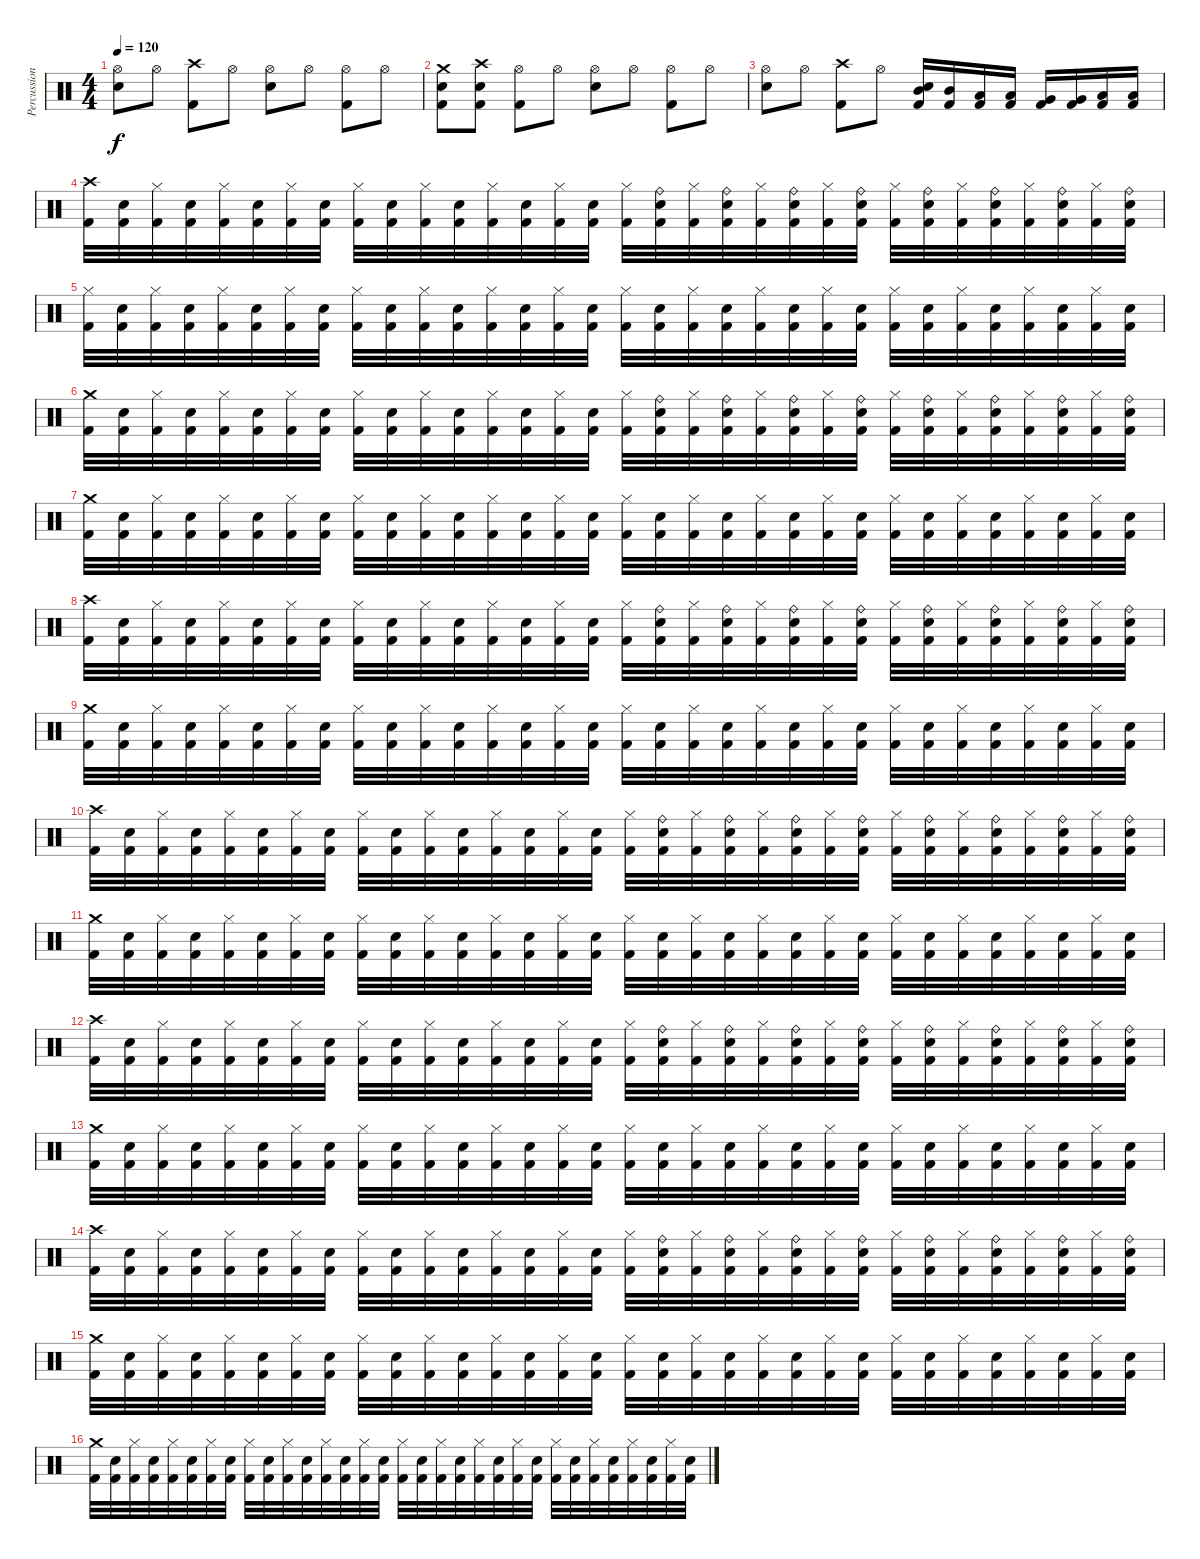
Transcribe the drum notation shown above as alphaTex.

\track ("Percussion" "Percussion") {instrument percussion}
\staff {score}
\articulation defaults
\ts (4 4)
\tempo 120
\clef neutral
\ks c
("Hi-Hat (open)" "Snare (hit) 2").8{dy f} "Hi-Hat (open)".8 ("Crash high (hit)" "Kick (hit) 2").8 "Hi-Hat (open)".8 ("Hi-Hat (open)" "Snare (hit) 2").8 "Hi-Hat (open)".8 ("Hi-Hat (open)" "Kick (hit) 2").8 "Hi-Hat (open)".8 |
("Crash medium (hit)" "Snare (hit) 2" "Kick (hit) 2").8 ("Crash high (hit)" "Snare (hit) 2" "Kick (hit) 2").8 ("Hi-Hat (open)" "Kick (hit) 2").8 "Hi-Hat (open)".8 ("Hi-Hat (open)" "Snare (hit) 2").8 "Hi-Hat (open)".8 ("Hi-Hat (open)" "Kick (hit) 2").8 "Hi-Hat (open)".8 |
("Hi-Hat (open)" "Snare (hit) 2").8 "Hi-Hat (open)".8 ("Crash high (hit)" "Kick (hit) 2").8 "Hi-Hat (open)".8 ("Mid Tom (hit)" "Snare (hit) 2" "Kick (hit) 2").16 ("Mid Tom (hit)" "Kick (hit) 2").16 ("Low Tom (hit)" "Kick (hit) 2").16 ("Low Tom (hit)" "Kick (hit) 2").16 ("Very Low Tom (hit)" "Kick (hit) 2").16 ("Very Low Tom (hit)" "Kick (hit) 2").16 ("Low Floor Tom (hit)" "Kick (hit) 2").16 ("Low Floor Tom (hit)" "Kick (hit) 2").16 |
("Crash high (hit)" "Kick (hit) 2").32 ("Snare (hit) 2" "Kick (hit) 2").32 ("Hi-Hat (closed)" "Kick (hit) 2").32 ("Snare (hit) 2" "Kick (hit) 2").32 ("Hi-Hat (closed)" "Kick (hit) 2").32 ("Snare (hit) 2" "Kick (hit) 2").32 ("Hi-Hat (closed)" "Kick (hit) 2").32 ("Snare (hit) 2" "Kick (hit) 2").32 ("Hi-Hat (closed)" "Kick (hit) 2").32 ("Snare (hit) 2" "Kick (hit) 2").32 ("Hi-Hat (closed)" "Kick (hit) 2").32 ("Snare (hit) 2" "Kick (hit) 2").32 ("Hi-Hat (closed)" "Kick (hit) 2").32 ("Snare (hit) 2" "Kick (hit) 2").32 ("Hi-Hat (closed)" "Kick (hit) 2").32 ("Snare (hit) 2" "Kick (hit) 2").32 ("Hi-Hat (closed)" "Kick (hit) 2").32 ("Snare (hit) 2" "Ride (bell)" "Kick (hit) 2").32 ("Hi-Hat (closed)" "Kick (hit) 2").32 ("Snare (hit) 2" "Ride (bell)" "Kick (hit) 2").32 ("Hi-Hat (closed)" "Kick (hit) 2").32 ("Snare (hit) 2" "Ride (bell)" "Kick (hit) 2").32 ("Hi-Hat (closed)" "Kick (hit) 2").32 ("Snare (hit) 2" "Ride (bell)" "Kick (hit) 2").32 ("Hi-Hat (closed)" "Kick (hit) 2").32 ("Snare (hit) 2" "Ride (bell)" "Kick (hit) 2").32 ("Hi-Hat (closed)" "Kick (hit) 2").32 ("Snare (hit) 2" "Ride (bell)" "Kick (hit) 2").32 ("Hi-Hat (closed)" "Kick (hit) 2").32 ("Snare (hit) 2" "Ride (bell)" "Kick (hit) 2").32 ("Hi-Hat (closed)" "Kick (hit) 2").32 ("Snare (hit) 2" "Ride (bell)" "Kick (hit) 2").32 |
("Hi-Hat (closed)" "Kick (hit) 2").32 ("Snare (hit) 2" "Kick (hit) 2").32 ("Hi-Hat (closed)" "Kick (hit) 2").32 ("Snare (hit) 2" "Kick (hit) 2").32 ("Hi-Hat (closed)" "Kick (hit) 2").32 ("Snare (hit) 2" "Kick (hit) 2").32 ("Hi-Hat (closed)" "Kick (hit) 2").32 ("Snare (hit) 2" "Kick (hit) 2").32 ("Hi-Hat (closed)" "Kick (hit) 2").32 ("Snare (hit) 2" "Kick (hit) 2").32 ("Hi-Hat (closed)" "Kick (hit) 2").32 ("Snare (hit) 2" "Kick (hit) 2").32 ("Hi-Hat (closed)" "Kick (hit) 2").32 ("Snare (hit) 2" "Kick (hit) 2").32 ("Hi-Hat (closed)" "Kick (hit) 2").32 ("Snare (hit) 2" "Kick (hit) 2").32 ("Hi-Hat (closed)" "Kick (hit) 2").32 ("Snare (hit) 2" "Kick (hit) 2").32 ("Hi-Hat (closed)" "Kick (hit) 2").32 ("Snare (hit) 2" "Kick (hit) 2").32 ("Hi-Hat (closed)" "Kick (hit) 2").32 ("Snare (hit) 2" "Kick (hit) 2").32 ("Hi-Hat (closed)" "Kick (hit) 2").32 ("Snare (hit) 2" "Kick (hit) 2").32 ("Hi-Hat (closed)" "Kick (hit) 2").32 ("Snare (hit) 2" "Kick (hit) 2").32 ("Hi-Hat (closed)" "Kick (hit) 2").32 ("Snare (hit) 2" "Kick (hit) 2").32 ("Hi-Hat (closed)" "Kick (hit) 2").32 ("Snare (hit) 2" "Kick (hit) 2").32 ("Hi-Hat (closed)" "Kick (hit) 2").32 ("Snare (hit) 2" "Kick (hit) 2").32 |
("Crash medium (hit)" "Kick (hit) 2").32 ("Snare (hit) 2" "Kick (hit) 2").32 ("Hi-Hat (closed)" "Kick (hit) 2").32 ("Snare (hit) 2" "Kick (hit) 2").32 ("Hi-Hat (closed)" "Kick (hit) 2").32 ("Snare (hit) 2" "Kick (hit) 2").32 ("Hi-Hat (closed)" "Kick (hit) 2").32 ("Snare (hit) 2" "Kick (hit) 2").32 ("Hi-Hat (closed)" "Kick (hit) 2").32 ("Snare (hit) 2" "Kick (hit) 2").32 ("Hi-Hat (closed)" "Kick (hit) 2").32 ("Snare (hit) 2" "Kick (hit) 2").32 ("Hi-Hat (closed)" "Kick (hit) 2").32 ("Snare (hit) 2" "Kick (hit) 2").32 ("Hi-Hat (closed)" "Kick (hit) 2").32 ("Snare (hit) 2" "Kick (hit) 2").32 ("Hi-Hat (closed)" "Kick (hit) 2").32 ("Snare (hit) 2" "Ride (bell)" "Kick (hit) 2").32 ("Hi-Hat (closed)" "Kick (hit) 2").32 ("Snare (hit) 2" "Ride (bell)" "Kick (hit) 2").32 ("Hi-Hat (closed)" "Kick (hit) 2").32 ("Snare (hit) 2" "Ride (bell)" "Kick (hit) 2").32 ("Hi-Hat (closed)" "Kick (hit) 2").32 ("Snare (hit) 2" "Ride (bell)" "Kick (hit) 2").32 ("Hi-Hat (closed)" "Kick (hit) 2").32 ("Snare (hit) 2" "Ride (bell)" "Kick (hit) 2").32 ("Hi-Hat (closed)" "Kick (hit) 2").32 ("Snare (hit) 2" "Ride (bell)" "Kick (hit) 2").32 ("Hi-Hat (closed)" "Kick (hit) 2").32 ("Snare (hit) 2" "Ride (bell)" "Kick (hit) 2").32 ("Hi-Hat (closed)" "Kick (hit) 2").32 ("Snare (hit) 2" "Ride (bell)" "Kick (hit) 2").32 |
("Crash medium (hit)" "Kick (hit) 2").32 ("Snare (hit) 2" "Kick (hit) 2").32 ("Hi-Hat (closed)" "Kick (hit) 2").32 ("Snare (hit) 2" "Kick (hit) 2").32 ("Hi-Hat (closed)" "Kick (hit) 2").32 ("Snare (hit) 2" "Kick (hit) 2").32 ("Hi-Hat (closed)" "Kick (hit) 2").32 ("Snare (hit) 2" "Kick (hit) 2").32 ("Hi-Hat (closed)" "Kick (hit) 2").32 ("Snare (hit) 2" "Kick (hit) 2").32 ("Hi-Hat (closed)" "Kick (hit) 2").32 ("Snare (hit) 2" "Kick (hit) 2").32 ("Hi-Hat (closed)" "Kick (hit) 2").32 ("Snare (hit) 2" "Kick (hit) 2").32 ("Hi-Hat (closed)" "Kick (hit) 2").32 ("Snare (hit) 2" "Kick (hit) 2").32 ("Hi-Hat (closed)" "Kick (hit) 2").32 ("Snare (hit) 2" "Kick (hit) 2").32 ("Hi-Hat (closed)" "Kick (hit) 2").32 ("Snare (hit) 2" "Kick (hit) 2").32 ("Hi-Hat (closed)" "Kick (hit) 2").32 ("Snare (hit) 2" "Kick (hit) 2").32 ("Hi-Hat (closed)" "Kick (hit) 2").32 ("Snare (hit) 2" "Kick (hit) 2").32 ("Hi-Hat (closed)" "Kick (hit) 2").32 ("Snare (hit) 2" "Kick (hit) 2").32 ("Hi-Hat (closed)" "Kick (hit) 2").32 ("Snare (hit) 2" "Kick (hit) 2").32 ("Hi-Hat (closed)" "Kick (hit) 2").32 ("Snare (hit) 2" "Kick (hit) 2").32 ("Hi-Hat (closed)" "Kick (hit) 2").32 ("Snare (hit) 2" "Kick (hit) 2").32 |
("Crash high (hit)" "Kick (hit) 2").32 ("Snare (hit) 2" "Kick (hit) 2").32 ("Hi-Hat (closed)" "Kick (hit) 2").32 ("Snare (hit) 2" "Kick (hit) 2").32 ("Hi-Hat (closed)" "Kick (hit) 2").32 ("Snare (hit) 2" "Kick (hit) 2").32 ("Hi-Hat (closed)" "Kick (hit) 2").32 ("Snare (hit) 2" "Kick (hit) 2").32 ("Hi-Hat (closed)" "Kick (hit) 2").32 ("Snare (hit) 2" "Kick (hit) 2").32 ("Hi-Hat (closed)" "Kick (hit) 2").32 ("Snare (hit) 2" "Kick (hit) 2").32 ("Hi-Hat (closed)" "Kick (hit) 2").32 ("Snare (hit) 2" "Kick (hit) 2").32 ("Hi-Hat (closed)" "Kick (hit) 2").32 ("Snare (hit) 2" "Kick (hit) 2").32 ("Hi-Hat (closed)" "Kick (hit) 2").32 ("Snare (hit) 2" "Ride (bell)" "Kick (hit) 2").32 ("Hi-Hat (closed)" "Kick (hit) 2").32 ("Snare (hit) 2" "Ride (bell)" "Kick (hit) 2").32 ("Hi-Hat (closed)" "Kick (hit) 2").32 ("Snare (hit) 2" "Ride (bell)" "Kick (hit) 2").32 ("Hi-Hat (closed)" "Kick (hit) 2").32 ("Snare (hit) 2" "Ride (bell)" "Kick (hit) 2").32 ("Hi-Hat (closed)" "Kick (hit) 2").32 ("Snare (hit) 2" "Ride (bell)" "Kick (hit) 2").32 ("Hi-Hat (closed)" "Kick (hit) 2").32 ("Snare (hit) 2" "Ride (bell)" "Kick (hit) 2").32 ("Hi-Hat (closed)" "Kick (hit) 2").32 ("Snare (hit) 2" "Ride (bell)" "Kick (hit) 2").32 ("Hi-Hat (closed)" "Kick (hit) 2").32 ("Snare (hit) 2" "Ride (bell)" "Kick (hit) 2").32 |
("Crash medium (hit)" "Kick (hit) 2").32 ("Snare (hit) 2" "Kick (hit) 2").32 ("Hi-Hat (closed)" "Kick (hit) 2").32 ("Snare (hit) 2" "Kick (hit) 2").32 ("Hi-Hat (closed)" "Kick (hit) 2").32 ("Snare (hit) 2" "Kick (hit) 2").32 ("Hi-Hat (closed)" "Kick (hit) 2").32 ("Snare (hit) 2" "Kick (hit) 2").32 ("Hi-Hat (closed)" "Kick (hit) 2").32 ("Snare (hit) 2" "Kick (hit) 2").32 ("Hi-Hat (closed)" "Kick (hit) 2").32 ("Snare (hit) 2" "Kick (hit) 2").32 ("Hi-Hat (closed)" "Kick (hit) 2").32 ("Snare (hit) 2" "Kick (hit) 2").32 ("Hi-Hat (closed)" "Kick (hit) 2").32 ("Snare (hit) 2" "Kick (hit) 2").32 ("Hi-Hat (closed)" "Kick (hit) 2").32 ("Snare (hit) 2" "Kick (hit) 2").32 ("Hi-Hat (closed)" "Kick (hit) 2").32 ("Snare (hit) 2" "Kick (hit) 2").32 ("Hi-Hat (closed)" "Kick (hit) 2").32 ("Snare (hit) 2" "Kick (hit) 2").32 ("Hi-Hat (closed)" "Kick (hit) 2").32 ("Snare (hit) 2" "Kick (hit) 2").32 ("Hi-Hat (closed)" "Kick (hit) 2").32 ("Snare (hit) 2" "Kick (hit) 2").32 ("Hi-Hat (closed)" "Kick (hit) 2").32 ("Snare (hit) 2" "Kick (hit) 2").32 ("Hi-Hat (closed)" "Kick (hit) 2").32 ("Snare (hit) 2" "Kick (hit) 2").32 ("Hi-Hat (closed)" "Kick (hit) 2").32 ("Snare (hit) 2" "Kick (hit) 2").32 |
("Crash high (hit)" "Kick (hit) 2").32 ("Snare (hit) 2" "Kick (hit) 2").32 ("Hi-Hat (closed)" "Kick (hit) 2").32 ("Snare (hit) 2" "Kick (hit) 2").32 ("Hi-Hat (closed)" "Kick (hit) 2").32 ("Snare (hit) 2" "Kick (hit) 2").32 ("Hi-Hat (closed)" "Kick (hit) 2").32 ("Snare (hit) 2" "Kick (hit) 2").32 ("Hi-Hat (closed)" "Kick (hit) 2").32 ("Snare (hit) 2" "Kick (hit) 2").32 ("Hi-Hat (closed)" "Kick (hit) 2").32 ("Snare (hit) 2" "Kick (hit) 2").32 ("Hi-Hat (closed)" "Kick (hit) 2").32 ("Snare (hit) 2" "Kick (hit) 2").32 ("Hi-Hat (closed)" "Kick (hit) 2").32 ("Snare (hit) 2" "Kick (hit) 2").32 ("Hi-Hat (closed)" "Kick (hit) 2").32 ("Snare (hit) 2" "Ride (bell)" "Kick (hit) 2").32 ("Hi-Hat (closed)" "Kick (hit) 2").32 ("Snare (hit) 2" "Ride (bell)" "Kick (hit) 2").32 ("Hi-Hat (closed)" "Kick (hit) 2").32 ("Snare (hit) 2" "Ride (bell)" "Kick (hit) 2").32 ("Hi-Hat (closed)" "Kick (hit) 2").32 ("Snare (hit) 2" "Ride (bell)" "Kick (hit) 2").32 ("Hi-Hat (closed)" "Kick (hit) 2").32 ("Snare (hit) 2" "Ride (bell)" "Kick (hit) 2").32 ("Hi-Hat (closed)" "Kick (hit) 2").32 ("Snare (hit) 2" "Ride (bell)" "Kick (hit) 2").32 ("Hi-Hat (closed)" "Kick (hit) 2").32 ("Snare (hit) 2" "Ride (bell)" "Kick (hit) 2").32 ("Hi-Hat (closed)" "Kick (hit) 2").32 ("Snare (hit) 2" "Ride (bell)" "Kick (hit) 2").32 |
("Crash medium (hit)" "Kick (hit) 2").32 ("Snare (hit) 2" "Kick (hit) 2").32 ("Hi-Hat (closed)" "Kick (hit) 2").32 ("Snare (hit) 2" "Kick (hit) 2").32 ("Hi-Hat (closed)" "Kick (hit) 2").32 ("Snare (hit) 2" "Kick (hit) 2").32 ("Hi-Hat (closed)" "Kick (hit) 2").32 ("Snare (hit) 2" "Kick (hit) 2").32 ("Hi-Hat (closed)" "Kick (hit) 2").32 ("Snare (hit) 2" "Kick (hit) 2").32 ("Hi-Hat (closed)" "Kick (hit) 2").32 ("Snare (hit) 2" "Kick (hit) 2").32 ("Hi-Hat (closed)" "Kick (hit) 2").32 ("Snare (hit) 2" "Kick (hit) 2").32 ("Hi-Hat (closed)" "Kick (hit) 2").32 ("Snare (hit) 2" "Kick (hit) 2").32 ("Hi-Hat (closed)" "Kick (hit) 2").32 ("Snare (hit) 2" "Kick (hit) 2").32 ("Hi-Hat (closed)" "Kick (hit) 2").32 ("Snare (hit) 2" "Kick (hit) 2").32 ("Hi-Hat (closed)" "Kick (hit) 2").32 ("Snare (hit) 2" "Kick (hit) 2").32 ("Hi-Hat (closed)" "Kick (hit) 2").32 ("Snare (hit) 2" "Kick (hit) 2").32 ("Hi-Hat (closed)" "Kick (hit) 2").32 ("Snare (hit) 2" "Kick (hit) 2").32 ("Hi-Hat (closed)" "Kick (hit) 2").32 ("Snare (hit) 2" "Kick (hit) 2").32 ("Hi-Hat (closed)" "Kick (hit) 2").32 ("Snare (hit) 2" "Kick (hit) 2").32 ("Hi-Hat (closed)" "Kick (hit) 2").32 ("Snare (hit) 2" "Kick (hit) 2").32 |
("Crash high (hit)" "Kick (hit) 2").32 ("Snare (hit) 2" "Kick (hit) 2").32 ("Hi-Hat (closed)" "Kick (hit) 2").32 ("Snare (hit) 2" "Kick (hit) 2").32 ("Hi-Hat (closed)" "Kick (hit) 2").32 ("Snare (hit) 2" "Kick (hit) 2").32 ("Hi-Hat (closed)" "Kick (hit) 2").32 ("Snare (hit) 2" "Kick (hit) 2").32 ("Hi-Hat (closed)" "Kick (hit) 2").32 ("Snare (hit) 2" "Kick (hit) 2").32 ("Hi-Hat (closed)" "Kick (hit) 2").32 ("Snare (hit) 2" "Kick (hit) 2").32 ("Hi-Hat (closed)" "Kick (hit) 2").32 ("Snare (hit) 2" "Kick (hit) 2").32 ("Hi-Hat (closed)" "Kick (hit) 2").32 ("Snare (hit) 2" "Kick (hit) 2").32 ("Hi-Hat (closed)" "Kick (hit) 2").32 ("Snare (hit) 2" "Ride (bell)" "Kick (hit) 2").32 ("Hi-Hat (closed)" "Kick (hit) 2").32 ("Snare (hit) 2" "Ride (bell)" "Kick (hit) 2").32 ("Hi-Hat (closed)" "Kick (hit) 2").32 ("Snare (hit) 2" "Ride (bell)" "Kick (hit) 2").32 ("Hi-Hat (closed)" "Kick (hit) 2").32 ("Snare (hit) 2" "Ride (bell)" "Kick (hit) 2").32 ("Hi-Hat (closed)" "Kick (hit) 2").32 ("Snare (hit) 2" "Ride (bell)" "Kick (hit) 2").32 ("Hi-Hat (closed)" "Kick (hit) 2").32 ("Snare (hit) 2" "Ride (bell)" "Kick (hit) 2").32 ("Hi-Hat (closed)" "Kick (hit) 2").32 ("Snare (hit) 2" "Ride (bell)" "Kick (hit) 2").32 ("Hi-Hat (closed)" "Kick (hit) 2").32 ("Snare (hit) 2" "Ride (bell)" "Kick (hit) 2").32 |
("Crash medium (hit)" "Kick (hit) 2").32 ("Snare (hit) 2" "Kick (hit) 2").32 ("Hi-Hat (closed)" "Kick (hit) 2").32 ("Snare (hit) 2" "Kick (hit) 2").32 ("Hi-Hat (closed)" "Kick (hit) 2").32 ("Snare (hit) 2" "Kick (hit) 2").32 ("Hi-Hat (closed)" "Kick (hit) 2").32 ("Snare (hit) 2" "Kick (hit) 2").32 ("Hi-Hat (closed)" "Kick (hit) 2").32 ("Snare (hit) 2" "Kick (hit) 2").32 ("Hi-Hat (closed)" "Kick (hit) 2").32 ("Snare (hit) 2" "Kick (hit) 2").32 ("Hi-Hat (closed)" "Kick (hit) 2").32 ("Snare (hit) 2" "Kick (hit) 2").32 ("Hi-Hat (closed)" "Kick (hit) 2").32 ("Snare (hit) 2" "Kick (hit) 2").32 ("Hi-Hat (closed)" "Kick (hit) 2").32 ("Snare (hit) 2" "Kick (hit) 2").32 ("Hi-Hat (closed)" "Kick (hit) 2").32 ("Snare (hit) 2" "Kick (hit) 2").32 ("Hi-Hat (closed)" "Kick (hit) 2").32 ("Snare (hit) 2" "Kick (hit) 2").32 ("Hi-Hat (closed)" "Kick (hit) 2").32 ("Snare (hit) 2" "Kick (hit) 2").32 ("Hi-Hat (closed)" "Kick (hit) 2").32 ("Snare (hit) 2" "Kick (hit) 2").32 ("Hi-Hat (closed)" "Kick (hit) 2").32 ("Snare (hit) 2" "Kick (hit) 2").32 ("Hi-Hat (closed)" "Kick (hit) 2").32 ("Snare (hit) 2" "Kick (hit) 2").32 ("Hi-Hat (closed)" "Kick (hit) 2").32 ("Snare (hit) 2" "Kick (hit) 2").32 |
("Crash high (hit)" "Kick (hit) 2").32 ("Snare (hit) 2" "Kick (hit) 2").32 ("Hi-Hat (closed)" "Kick (hit) 2").32 ("Snare (hit) 2" "Kick (hit) 2").32 ("Hi-Hat (closed)" "Kick (hit) 2").32 ("Snare (hit) 2" "Kick (hit) 2").32 ("Hi-Hat (closed)" "Kick (hit) 2").32 ("Snare (hit) 2" "Kick (hit) 2").32 ("Hi-Hat (closed)" "Kick (hit) 2").32 ("Snare (hit) 2" "Kick (hit) 2").32 ("Hi-Hat (closed)" "Kick (hit) 2").32 ("Snare (hit) 2" "Kick (hit) 2").32 ("Hi-Hat (closed)" "Kick (hit) 2").32 ("Snare (hit) 2" "Kick (hit) 2").32 ("Hi-Hat (closed)" "Kick (hit) 2").32 ("Snare (hit) 2" "Kick (hit) 2").32 ("Hi-Hat (closed)" "Kick (hit) 2").32 ("Snare (hit) 2" "Ride (bell)" "Kick (hit) 2").32 ("Hi-Hat (closed)" "Kick (hit) 2").32 ("Snare (hit) 2" "Ride (bell)" "Kick (hit) 2").32 ("Hi-Hat (closed)" "Kick (hit) 2").32 ("Snare (hit) 2" "Ride (bell)" "Kick (hit) 2").32 ("Hi-Hat (closed)" "Kick (hit) 2").32 ("Snare (hit) 2" "Ride (bell)" "Kick (hit) 2").32 ("Hi-Hat (closed)" "Kick (hit) 2").32 ("Snare (hit) 2" "Ride (bell)" "Kick (hit) 2").32 ("Hi-Hat (closed)" "Kick (hit) 2").32 ("Snare (hit) 2" "Ride (bell)" "Kick (hit) 2").32 ("Hi-Hat (closed)" "Kick (hit) 2").32 ("Snare (hit) 2" "Ride (bell)" "Kick (hit) 2").32 ("Hi-Hat (closed)" "Kick (hit) 2").32 ("Snare (hit) 2" "Ride (bell)" "Kick (hit) 2").32 |
("Crash medium (hit)" "Kick (hit) 2").32 ("Snare (hit) 2" "Kick (hit) 2").32 ("Hi-Hat (closed)" "Kick (hit) 2").32 ("Snare (hit) 2" "Kick (hit) 2").32 ("Hi-Hat (closed)" "Kick (hit) 2").32 ("Snare (hit) 2" "Kick (hit) 2").32 ("Hi-Hat (closed)" "Kick (hit) 2").32 ("Snare (hit) 2" "Kick (hit) 2").32 ("Hi-Hat (closed)" "Kick (hit) 2").32 ("Snare (hit) 2" "Kick (hit) 2").32 ("Hi-Hat (closed)" "Kick (hit) 2").32 ("Snare (hit) 2" "Kick (hit) 2").32 ("Hi-Hat (closed)" "Kick (hit) 2").32 ("Snare (hit) 2" "Kick (hit) 2").32 ("Hi-Hat (closed)" "Kick (hit) 2").32 ("Snare (hit) 2" "Kick (hit) 2").32 ("Hi-Hat (closed)" "Kick (hit) 2").32 ("Snare (hit) 2" "Kick (hit) 2").32 ("Hi-Hat (closed)" "Kick (hit) 2").32 ("Snare (hit) 2" "Kick (hit) 2").32 ("Hi-Hat (closed)" "Kick (hit) 2").32 ("Snare (hit) 2" "Kick (hit) 2").32 ("Hi-Hat (closed)" "Kick (hit) 2").32 ("Snare (hit) 2" "Kick (hit) 2").32 ("Hi-Hat (closed)" "Kick (hit) 2").32 ("Snare (hit) 2" "Kick (hit) 2").32 ("Hi-Hat (closed)" "Kick (hit) 2").32 ("Snare (hit) 2" "Kick (hit) 2").32 ("Hi-Hat (closed)" "Kick (hit) 2").32 ("Snare (hit) 2" "Kick (hit) 2").32 ("Hi-Hat (closed)" "Kick (hit) 2").32 ("Snare (hit) 2" "Kick (hit) 2").32 |
("Crash medium (hit)" "Kick (hit) 2").32 ("Snare (hit) 2" "Kick (hit) 2").32 ("Hi-Hat (closed)" "Kick (hit) 2").32 ("Snare (hit) 2" "Kick (hit) 2").32 ("Hi-Hat (closed)" "Kick (hit) 2").32 ("Snare (hit) 2" "Kick (hit) 2").32 ("Hi-Hat (closed)" "Kick (hit) 2").32 ("Snare (hit) 2" "Kick (hit) 2").32 ("Hi-Hat (closed)" "Kick (hit) 2").32 ("Snare (hit) 2" "Kick (hit) 2").32 ("Hi-Hat (closed)" "Kick (hit) 2").32 ("Snare (hit) 2" "Kick (hit) 2").32 ("Hi-Hat (closed)" "Kick (hit) 2").32 ("Snare (hit) 2" "Kick (hit) 2").32 ("Hi-Hat (closed)" "Kick (hit) 2").32 ("Snare (hit) 2" "Kick (hit) 2").32 ("Hi-Hat (closed)" "Kick (hit) 2").32 ("Snare (hit) 2" "Kick (hit) 2").32 ("Hi-Hat (closed)" "Kick (hit) 2").32 ("Snare (hit) 2" "Kick (hit) 2").32 ("Hi-Hat (closed)" "Kick (hit) 2").32 ("Snare (hit) 2" "Kick (hit) 2").32 ("Hi-Hat (closed)" "Kick (hit) 2").32 ("Snare (hit) 2" "Kick (hit) 2").32 ("Hi-Hat (closed)" "Kick (hit) 2").32 ("Snare (hit) 2" "Kick (hit) 2").32 ("Hi-Hat (closed)" "Kick (hit) 2").32 ("Snare (hit) 2" "Kick (hit) 2").32 ("Hi-Hat (closed)" "Kick (hit) 2").32 ("Snare (hit) 2" "Kick (hit) 2").32 ("Hi-Hat (closed)" "Kick (hit) 2").32 ("Snare (hit) 2" "Kick (hit) 2").32
